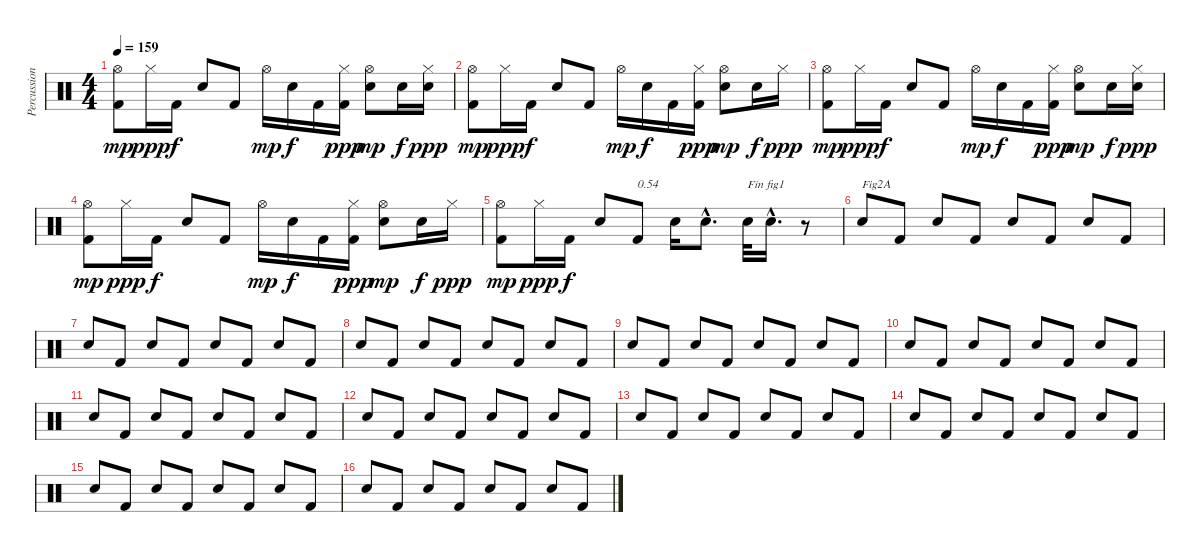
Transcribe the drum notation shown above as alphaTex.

\track ("Percussions" "Percussion") {instrument percussion}
\staff {score}
\articulation defaults
\ts (4 4)
\tempo 159
\clef neutral
\ks c
("Kick (hit) 2" "Hi-Hat (open)").8{dy mp} "Hi-Hat (closed)".16{dy ppp} "Kick (hit) 2".16{dy f} "Electric Snare (hit)".8 "Kick (hit) 2".8 "Hi-Hat (open)".16{dy mp} "Electric Snare (hit)".16{dy f} "Kick (hit) 2".16 ("Kick (hit) 2" "Hi-Hat (closed)").16{dy ppp} ("Electric Snare (hit)" "Hi-Hat (open)").8{dy mp} "Electric Snare (hit)".16{dy f} ("Electric Snare (hit)" "Hi-Hat (closed)").16{dy ppp} |
("Kick (hit) 2" "Hi-Hat (open)").8{dy mp} "Hi-Hat (closed)".16{dy ppp} "Kick (hit) 2".16{dy f} "Electric Snare (hit)".8 "Kick (hit) 2".8 "Hi-Hat (open)".16{dy mp} "Electric Snare (hit)".16{dy f} "Kick (hit) 2".16 ("Kick (hit) 2" "Hi-Hat (closed)").16{dy ppp} ("Electric Snare (hit)" "Hi-Hat (open)").8{dy mp} "Electric Snare (hit)".16{dy f} "Hi-Hat (closed)".16{dy ppp} |
("Kick (hit) 2" "Hi-Hat (open)").8{dy mp} "Hi-Hat (closed)".16{dy ppp} "Kick (hit) 2".16{dy f} "Electric Snare (hit)".8 "Kick (hit) 2".8 "Hi-Hat (open)".16{dy mp} "Electric Snare (hit)".16{dy f} "Kick (hit) 2".16 ("Kick (hit) 2" "Hi-Hat (closed)").16{dy ppp} ("Electric Snare (hit)" "Hi-Hat (open)").8{dy mp} "Electric Snare (hit)".16{dy f} ("Electric Snare (hit)" "Hi-Hat (closed)").16{dy ppp} |
("Kick (hit) 2" "Hi-Hat (open)").8{dy mp} "Hi-Hat (closed)".16{dy ppp} "Kick (hit) 2".16{dy f} "Electric Snare (hit)".8 "Kick (hit) 2".8 "Hi-Hat (open)".16{dy mp} "Electric Snare (hit)".16{dy f} "Kick (hit) 2".16 ("Kick (hit) 2" "Hi-Hat (closed)").16{dy ppp} ("Electric Snare (hit)" "Hi-Hat (open)").8{dy mp} "Electric Snare (hit)".16{dy f} "Hi-Hat (closed)".16{dy ppp} |
("Kick (hit) 2" "Hi-Hat (open)").8{dy mp} "Hi-Hat (closed)".16{dy ppp} "Kick (hit) 2".16{dy f} "Electric Snare (hit)".8 "Kick (hit) 2".8{txt "0.54"} "Electric Snare (hit)".16 "Electric Snare (hit)"{hac}.8{d} "Electric Snare (hit)".32{txt "Fin fig1"} "Electric Snare (hit)"{hac}.16{d} r.8 |
"Electric Snare (hit)".8{txt "Fig2A"} "Kick (hit) 2".8 "Electric Snare (hit)".8 "Kick (hit) 2".8 "Electric Snare (hit)".8 "Kick (hit) 2".8 "Electric Snare (hit)".8 "Kick (hit) 2".8 |
"Electric Snare (hit)".8 "Kick (hit) 2".8 "Electric Snare (hit)".8 "Kick (hit) 2".8 "Electric Snare (hit)".8 "Kick (hit) 2".8 "Electric Snare (hit)".8 "Kick (hit) 2".8 |
"Electric Snare (hit)".8 "Kick (hit) 2".8 "Electric Snare (hit)".8 "Kick (hit) 2".8 "Electric Snare (hit)".8 "Kick (hit) 2".8 "Electric Snare (hit)".8 "Kick (hit) 2".8 |
"Electric Snare (hit)".8 "Kick (hit) 2".8 "Electric Snare (hit)".8 "Kick (hit) 2".8 "Electric Snare (hit)".8 "Kick (hit) 2".8 "Electric Snare (hit)".8 "Kick (hit) 2".8 |
"Electric Snare (hit)".8 "Kick (hit) 2".8 "Electric Snare (hit)".8 "Kick (hit) 2".8 "Electric Snare (hit)".8 "Kick (hit) 2".8 "Electric Snare (hit)".8 "Kick (hit) 2".8 |
"Electric Snare (hit)".8 "Kick (hit) 2".8 "Electric Snare (hit)".8 "Kick (hit) 2".8 "Electric Snare (hit)".8 "Kick (hit) 2".8 "Electric Snare (hit)".8 "Kick (hit) 2".8 |
"Electric Snare (hit)".8 "Kick (hit) 2".8 "Electric Snare (hit)".8 "Kick (hit) 2".8 "Electric Snare (hit)".8 "Kick (hit) 2".8 "Electric Snare (hit)".8 "Kick (hit) 2".8 |
"Electric Snare (hit)".8 "Kick (hit) 2".8 "Electric Snare (hit)".8 "Kick (hit) 2".8 "Electric Snare (hit)".8 "Kick (hit) 2".8 "Electric Snare (hit)".8 "Kick (hit) 2".8 |
"Electric Snare (hit)".8 "Kick (hit) 2".8 "Electric Snare (hit)".8 "Kick (hit) 2".8 "Electric Snare (hit)".8 "Kick (hit) 2".8 "Electric Snare (hit)".8 "Kick (hit) 2".8 |
"Electric Snare (hit)".8 "Kick (hit) 2".8 "Electric Snare (hit)".8 "Kick (hit) 2".8 "Electric Snare (hit)".8 "Kick (hit) 2".8 "Electric Snare (hit)".8 "Kick (hit) 2".8 |
"Electric Snare (hit)".8 "Kick (hit) 2".8 "Electric Snare (hit)".8 "Kick (hit) 2".8 "Electric Snare (hit)".8 "Kick (hit) 2".8 "Electric Snare (hit)".8 "Kick (hit) 2".8
